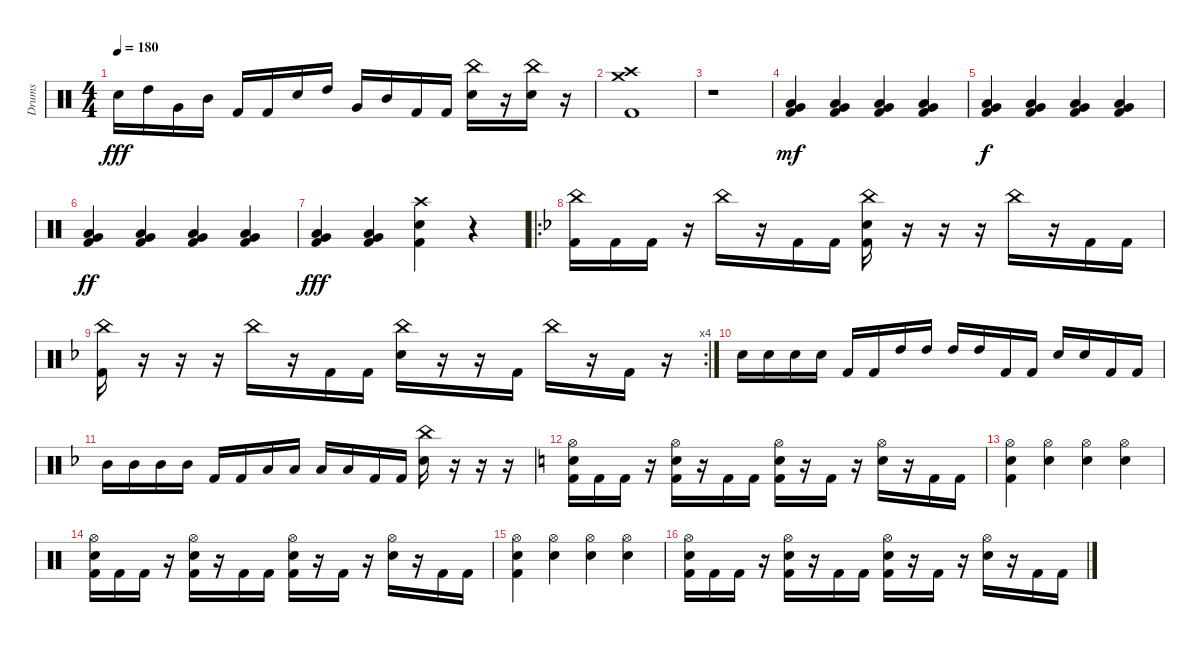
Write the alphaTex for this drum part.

\track ("Drums" "Drums") {instrument percussion}
\staff {score}
\articulation defaults
\ts (4 4)
\tempo 180
\clef neutral
\ks c "Electric Snare (hit)".16{dy fff} "High Tom (hit)".16 "Very Low Tom (hit)".16 "Mid Tom (hit)".16 "Kick (hit) 2".16 "Kick (hit) 2".16 "Electric Snare (hit)".16 "High Tom (hit)".16 "Very Low Tom (hit)".16 "Mid Tom (hit)".16 "Kick (hit) 2".16 "Kick (hit) 2".16
("China (hit)" "Electric Snare (hit)").16 r.16 ("China (hit)" "Electric Snare (hit)").16 r.16 |
("Crash high (hit)" "Crash medium (hit)" "Kick (hit) 2").1 |
r.1 |
("Low Tom (hit)" "Very Low Tom (hit)" "Kick (hit) 2").4{dy mf} ("Low Tom (hit)" "Very Low Tom (hit)" "Kick (hit) 2").4 ("Low Tom (hit)" "Very Low Tom (hit)" "Kick (hit) 2").4 ("Low Tom (hit)" "Very Low Tom (hit)" "Kick (hit) 2").4 |
("Low Tom (hit)" "Very Low Tom (hit)" "Kick (hit) 2").4{dy f} ("Low Tom (hit)" "Very Low Tom (hit)" "Kick (hit) 2").4 ("Low Tom (hit)" "Very Low Tom (hit)" "Kick (hit) 2").4 ("Low Tom (hit)" "Very Low Tom (hit)" "Kick (hit) 2").4 |
("Low Tom (hit)" "Very Low Tom (hit)" "Kick (hit) 2").4{dy ff} ("Low Tom (hit)" "Very Low Tom (hit)" "Kick (hit) 2").4 ("Low Tom (hit)" "Very Low Tom (hit)" "Kick (hit) 2").4 ("Low Tom (hit)" "Very Low Tom (hit)" "Kick (hit) 2").4 |
("Low Tom (hit)" "Very Low Tom (hit)" "Kick (hit) 2").4{dy fff} ("Low Tom (hit)" "Very Low Tom (hit)" "Kick (hit) 2").4 ("Crash high (hit)" "Electric Snare (hit)" "Kick (hit) 2").4 r.4 |
\ro
\ks f
("China (hit)" "Kick (hit) 2").16 "Kick (hit) 2".16 "Kick (hit) 2".16 r.16 "China (hit)".16 r.16 "Kick (hit) 2".16 "Kick (hit) 2".16 ("China (hit)" "Electric Snare (hit)" "Kick (hit) 2").16 r.16 r.16 r.16 "China (hit)".16 r.16 "Kick (hit) 2".16 "Kick (hit) 2".16 |
\rc 4
("China (hit)" "Kick (hit) 2").16 r.16 r.16 r.16 "China (hit)".16 r.16 "Kick (hit) 2".16 "Kick (hit) 2".16 ("China (hit)" "Electric Snare (hit)").16 r.16 r.16 "Kick (hit) 2".16 "China (hit)".16 r.16 "Kick (hit) 2".16 r.16 |
"Electric Snare (hit)".16 "Electric Snare (hit)".16 "Electric Snare (hit)".16 "Electric Snare (hit)".16 "Kick (hit) 2".16 "Kick (hit) 2".16 "High Tom (hit)".16 "High Tom (hit)".16 "High Tom (hit)".16 "High Tom (hit)".16 "Kick (hit) 2".16 "Kick (hit) 2".16 "Electric Snare (hit)".16 "Electric Snare (hit)".16 "Kick (hit) 2".16 "Kick (hit) 2".16 |
"Mid Tom (hit)".16 "Mid Tom (hit)".16 "Mid Tom (hit)".16 "Mid Tom (hit)".16 "Kick (hit) 2".16 "Kick (hit) 2".16 "Low Tom (hit)".16 "Low Tom (hit)".16 "Low Tom (hit)".16 "Low Tom (hit)".16 "Kick (hit) 2".16 "Kick (hit) 2".16 ("China (hit)" "Electric Snare (hit)").16 r.16 r.16 r.16 |
\ks c
("Hi-Hat (open)" "Electric Snare (hit)" "Kick (hit) 2").16 "Kick (hit) 2".16 "Kick (hit) 2".16 r.16 ("Hi-Hat (open)" "Electric Snare (hit)" "Kick (hit) 2").16 r.16 "Kick (hit) 2".16 "Kick (hit) 2".16 ("Hi-Hat (open)" "Electric Snare (hit)" "Kick (hit) 2").16 r.16 "Kick (hit) 2".16 r.16 ("Hi-Hat (open)" "Electric Snare (hit)").16 r.16 "Kick (hit) 2".16 "Kick (hit) 2".16 |
("Hi-Hat (open)" "Electric Snare (hit)" "Kick (hit) 2").4 ("Hi-Hat (open)" "Electric Snare (hit)").4 ("Hi-Hat (open)" "Electric Snare (hit)").4 ("Hi-Hat (open)" "Electric Snare (hit)").4 |
("Hi-Hat (open)" "Electric Snare (hit)" "Kick (hit) 2").16 "Kick (hit) 2".16 "Kick (hit) 2".16 r.16 ("Hi-Hat (open)" "Electric Snare (hit)" "Kick (hit) 2").16 r.16 "Kick (hit) 2".16 "Kick (hit) 2".16 ("Hi-Hat (open)" "Electric Snare (hit)" "Kick (hit) 2").16 r.16 "Kick (hit) 2".16 r.16 ("Hi-Hat (open)" "Electric Snare (hit)").16 r.16 "Kick (hit) 2".16 "Kick (hit) 2".16 |
("Hi-Hat (open)" "Electric Snare (hit)" "Kick (hit) 2").4 ("Hi-Hat (open)" "Electric Snare (hit)").4 ("Hi-Hat (open)" "Electric Snare (hit)").4 ("Hi-Hat (open)" "Electric Snare (hit)").4 |
("Hi-Hat (open)" "Electric Snare (hit)" "Kick (hit) 2").16 "Kick (hit) 2".16 "Kick (hit) 2".16 r.16 ("Hi-Hat (open)" "Electric Snare (hit)" "Kick (hit) 2").16 r.16 "Kick (hit) 2".16 "Kick (hit) 2".16 ("Hi-Hat (open)" "Electric Snare (hit)" "Kick (hit) 2").16 r.16 "Kick (hit) 2".16 r.16 ("Hi-Hat (open)" "Electric Snare (hit)").16 r.16 "Kick (hit) 2".16 "Kick (hit) 2".16
